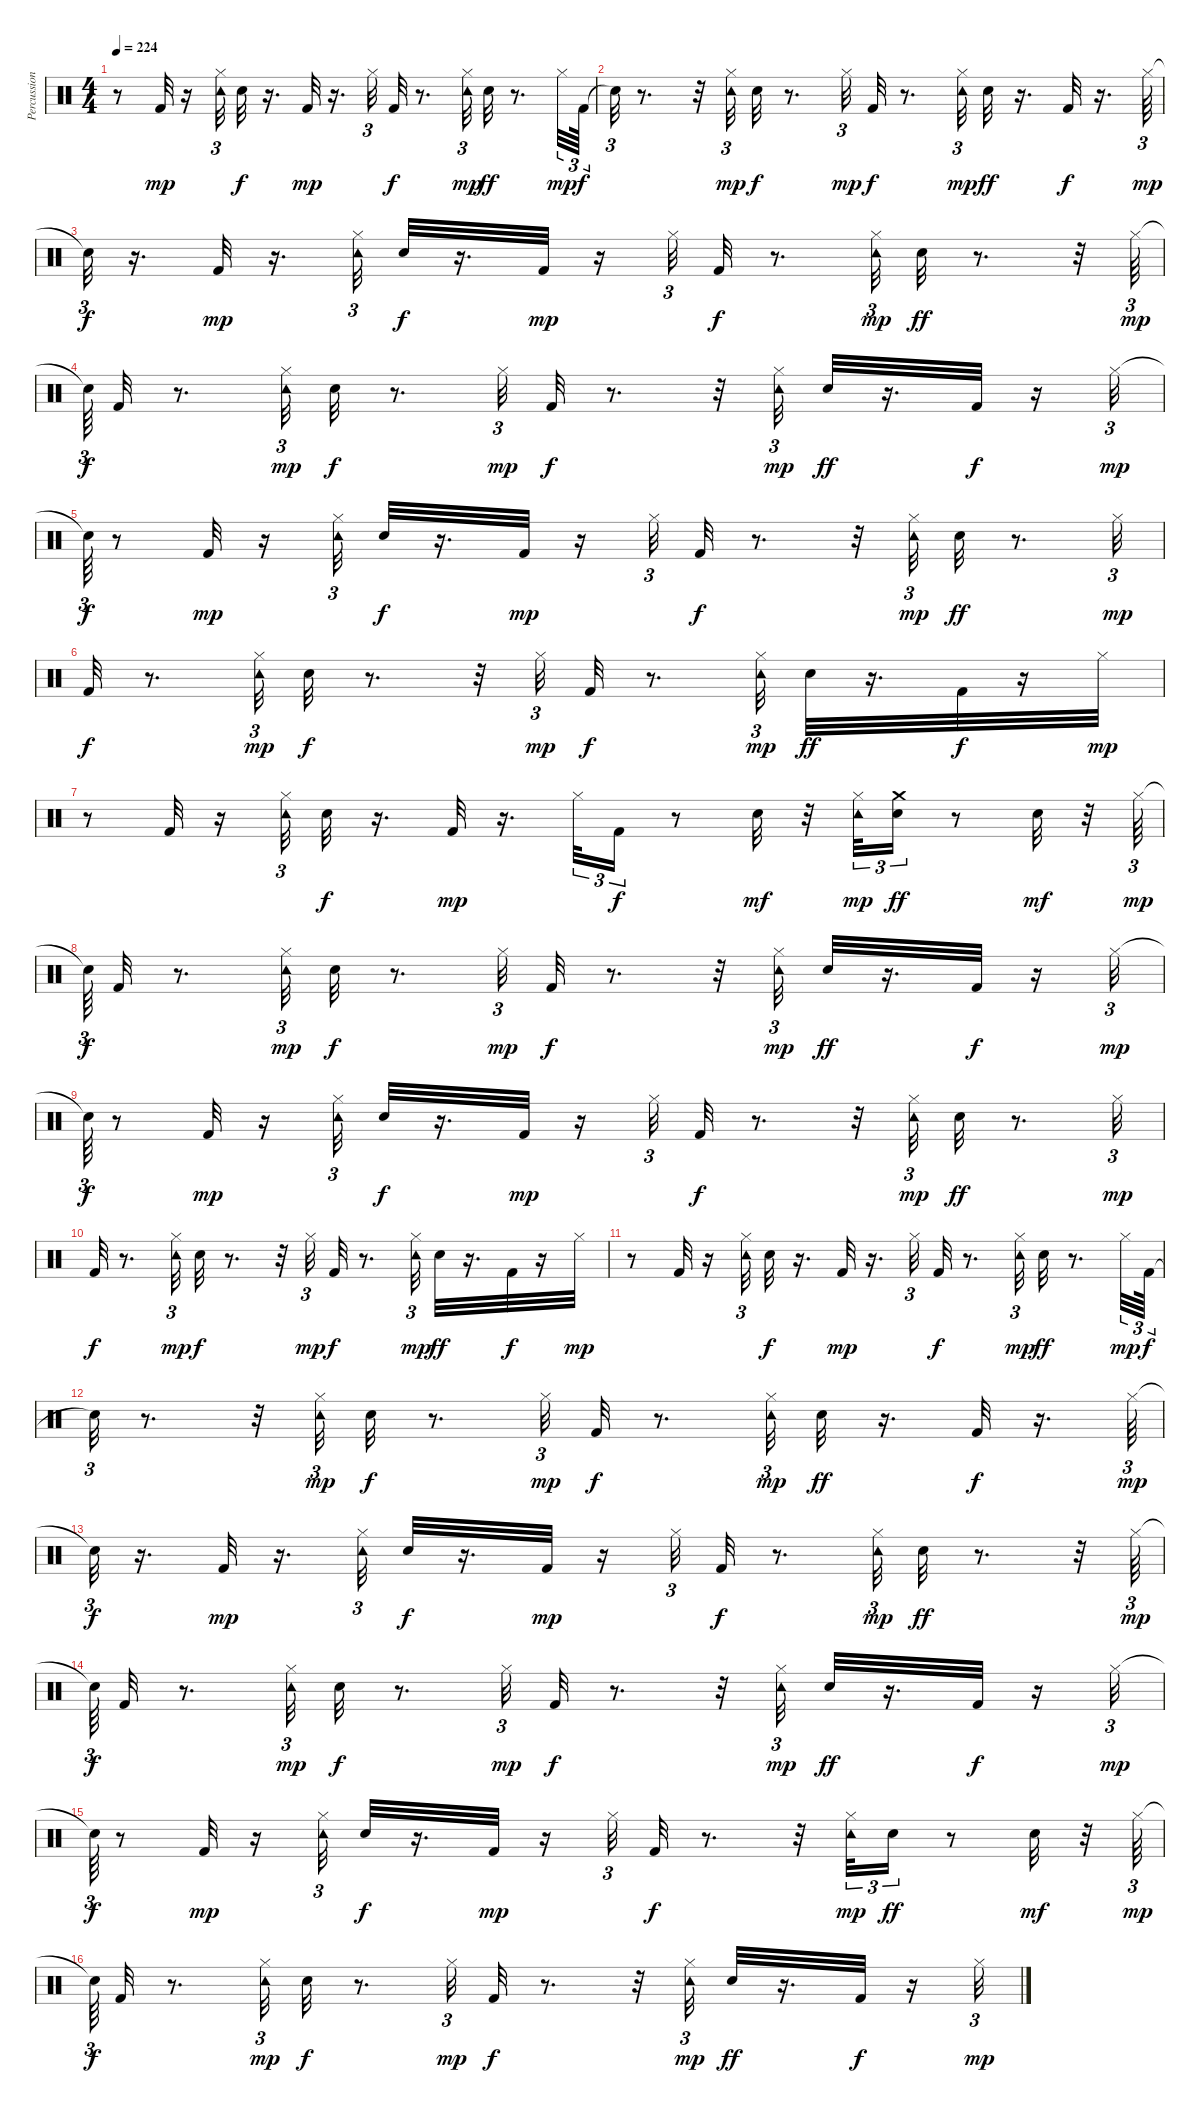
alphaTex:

\track ("Percussion" "Percussion") {instrument percussion}
\staff {score}
\articulation defaults
\ts (4 4)
\tempo 224
\clef neutral
\ks c
r.8{dy mp} "Kick (hit) 2".32 r.16 ("Tambourine (hit)" "Hi-Hat (closed)").32{tu (3 2)} "Snare (hit) 2".32{dy f} r.16{d} "Kick (hit) 2".32{dy mp} r.16{d} "Hi-Hat (closed)".32{tu (3 2)} "Kick (hit) 2".32{dy f} r.8{d} ("Tambourine (hit)" "Hi-Hat (closed)").32{tu (3 2) dy mp} "Snare (hit) 2".32{dy ff} r.8{d} "Hi-Hat (closed)".32{tu (3 2) dy mp} "Kick (hit) 2".64{tu (3 2) dy f} |
"Snare (hit)"{t}.32{tu (3 2)} r.8{d} r.32 ("Tambourine (hit)" "Hi-Hat (closed)").32{tu (3 2) dy mp} "Snare (hit) 2".32{dy f} r.8{d} "Hi-Hat (closed)".32{tu (3 2) dy mp} "Kick (hit) 2".32{dy f} r.8{d} ("Tambourine (hit)" "Hi-Hat (closed)").32{tu (3 2) dy mp} "Snare (hit) 2".32{dy ff} r.16{d} "Kick (hit) 2".32{dy f} r.16{d} "Hi-Hat (closed)".64{tu (3 2) dy mp} |
"Snare (hit)"{t}.32{tu (3 2) dy f} r.16{d} "Kick (hit) 2".32{dy mp} r.16{d} ("Tambourine (hit)" "Hi-Hat (closed)").32{tu (3 2)} "Snare (hit) 2".32{dy f} r.16{d} "Kick (hit) 2".32{dy mp} r.16 "Hi-Hat (closed)".32{tu (3 2)} "Kick (hit) 2".32{dy f} r.8{d} ("Tambourine (hit)" "Hi-Hat (closed)").32{tu (3 2) dy mp} "Snare (hit) 2".32{dy ff} r.8{d} r.32 "Hi-Hat (closed)".64{tu (3 2) dy mp} |
"Snare (hit)"{t}.64{tu (3 2) dy f} "Kick (hit) 2".32 r.8{d} ("Tambourine (hit)" "Hi-Hat (closed)").32{tu (3 2) dy mp} "Snare (hit) 2".32{dy f} r.8{d} "Hi-Hat (closed)".32{tu (3 2) dy mp} "Kick (hit) 2".32{dy f} r.8{d} r.32 ("Tambourine (hit)" "Hi-Hat (closed)").32{tu (3 2) dy mp} "Snare (hit) 2".32{dy ff} r.16{d} "Kick (hit) 2".32{dy f} r.16 "Hi-Hat (closed)".32{tu (3 2) dy mp} |
"Snare (hit)"{t}.64{tu (3 2) dy f} r.8 "Kick (hit) 2".32{dy mp} r.16 ("Tambourine (hit)" "Hi-Hat (closed)").32{tu (3 2)} "Snare (hit) 2".32{dy f} r.16{d} "Kick (hit) 2".32{dy mp} r.16 "Hi-Hat (closed)".32{tu (3 2)} "Kick (hit) 2".32{dy f} r.8{d} r.32 ("Tambourine (hit)" "Hi-Hat (closed)").32{tu (3 2) dy mp} "Snare (hit) 2".32{dy ff} r.8{d} "Hi-Hat (closed)".32{tu (3 2) dy mp} |
"Kick (hit) 2".32{dy f} r.8{d} ("Tambourine (hit)" "Hi-Hat (closed)").32{tu (3 2) dy mp} "Snare (hit) 2".32{dy f} r.8{d} r.32 "Hi-Hat (closed)".32{tu (3 2) dy mp} "Kick (hit) 2".32{dy f} r.8{d} ("Tambourine (hit)" "Hi-Hat (closed)").32{tu (3 2) dy mp} "Snare (hit) 2".32{dy ff} r.16{d} "Kick (hit) 2".32{dy f} r.16 "Hi-Hat (closed)".32{dy mp} |
r.8 "Kick (hit) 2".32 r.16 ("Tambourine (hit)" "Hi-Hat (closed)").32{tu (3 2)} "Snare (hit) 2".32{dy f} r.16{d} "Kick (hit) 2".32{dy mp} r.16{d} "Hi-Hat (closed)".32{tu (3 2)} "Kick (hit) 2".16{tu (3 2) dy f} r.8 "Snare (hit) 2".32{dy mf} r.32 ("Tambourine (hit)" "Hi-Hat (closed)").32{tu (3 2) dy mp} ("Snare (hit) 2" "Crash medium (hit)").16{tu (3 2) dy ff} r.8 "Snare (hit) 2".32{dy mf} r.32 "Hi-Hat (closed)".64{tu (3 2) dy mp} |
"Snare (hit)"{t}.64{tu (3 2) dy f} "Kick (hit) 2".32 r.8{d} ("Tambourine (hit)" "Hi-Hat (closed)").32{tu (3 2) dy mp} "Snare (hit) 2".32{dy f} r.8{d} "Hi-Hat (closed)".32{tu (3 2) dy mp} "Kick (hit) 2".32{dy f} r.8{d} r.32 ("Tambourine (hit)" "Hi-Hat (closed)").32{tu (3 2) dy mp} "Snare (hit) 2".32{dy ff} r.16{d} "Kick (hit) 2".32{dy f} r.16 "Hi-Hat (closed)".32{tu (3 2) dy mp} |
"Snare (hit)"{t}.64{tu (3 2) dy f} r.8 "Kick (hit) 2".32{dy mp} r.16 ("Tambourine (hit)" "Hi-Hat (closed)").32{tu (3 2)} "Snare (hit) 2".32{dy f} r.16{d} "Kick (hit) 2".32{dy mp} r.16 "Hi-Hat (closed)".32{tu (3 2)} "Kick (hit) 2".32{dy f} r.8{d} r.32 ("Tambourine (hit)" "Hi-Hat (closed)").32{tu (3 2) dy mp} "Snare (hit) 2".32{dy ff} r.8{d} "Hi-Hat (closed)".32{tu (3 2) dy mp} |
"Kick (hit) 2".32{dy f} r.8{d} ("Tambourine (hit)" "Hi-Hat (closed)").32{tu (3 2) dy mp} "Snare (hit) 2".32{dy f} r.8{d} r.32 "Hi-Hat (closed)".32{tu (3 2) dy mp} "Kick (hit) 2".32{dy f} r.8{d} ("Tambourine (hit)" "Hi-Hat (closed)").32{tu (3 2) dy mp} "Snare (hit) 2".32{dy ff} r.16{d} "Kick (hit) 2".32{dy f} r.16 "Hi-Hat (closed)".32{dy mp} |
r.8 "Kick (hit) 2".32 r.16 ("Tambourine (hit)" "Hi-Hat (closed)").32{tu (3 2)} "Snare (hit) 2".32{dy f} r.16{d} "Kick (hit) 2".32{dy mp} r.16{d} "Hi-Hat (closed)".32{tu (3 2)} "Kick (hit) 2".32{dy f} r.8{d} ("Tambourine (hit)" "Hi-Hat (closed)").32{tu (3 2) dy mp} "Snare (hit) 2".32{dy ff} r.8{d} "Hi-Hat (closed)".32{tu (3 2) dy mp} "Kick (hit) 2".64{tu (3 2) dy f} |
"Snare (hit)"{t}.32{tu (3 2)} r.8{d} r.32 ("Tambourine (hit)" "Hi-Hat (closed)").32{tu (3 2) dy mp} "Snare (hit) 2".32{dy f} r.8{d} "Hi-Hat (closed)".32{tu (3 2) dy mp} "Kick (hit) 2".32{dy f} r.8{d} ("Tambourine (hit)" "Hi-Hat (closed)").32{tu (3 2) dy mp} "Snare (hit) 2".32{dy ff} r.16{d} "Kick (hit) 2".32{dy f} r.16{d} "Hi-Hat (closed)".64{tu (3 2) dy mp} |
"Snare (hit)"{t}.32{tu (3 2) dy f} r.16{d} "Kick (hit) 2".32{dy mp} r.16{d} ("Tambourine (hit)" "Hi-Hat (closed)").32{tu (3 2)} "Snare (hit) 2".32{dy f} r.16{d} "Kick (hit) 2".32{dy mp} r.16 "Hi-Hat (closed)".32{tu (3 2)} "Kick (hit) 2".32{dy f} r.8{d} ("Tambourine (hit)" "Hi-Hat (closed)").32{tu (3 2) dy mp} "Snare (hit) 2".32{dy ff} r.8{d} r.32 "Hi-Hat (closed)".64{tu (3 2) dy mp} |
"Snare (hit)"{t}.64{tu (3 2) dy f} "Kick (hit) 2".32 r.8{d} ("Tambourine (hit)" "Hi-Hat (closed)").32{tu (3 2) dy mp} "Snare (hit) 2".32{dy f} r.8{d} "Hi-Hat (closed)".32{tu (3 2) dy mp} "Kick (hit) 2".32{dy f} r.8{d} r.32 ("Tambourine (hit)" "Hi-Hat (closed)").32{tu (3 2) dy mp} "Snare (hit) 2".32{dy ff} r.16{d} "Kick (hit) 2".32{dy f} r.16 "Hi-Hat (closed)".32{tu (3 2) dy mp} |
"Snare (hit)"{t}.64{tu (3 2) dy f} r.8 "Kick (hit) 2".32{dy mp} r.16 ("Tambourine (hit)" "Hi-Hat (closed)").32{tu (3 2)} "Snare (hit) 2".32{dy f} r.16{d} "Kick (hit) 2".32{dy mp} r.16 "Hi-Hat (closed)".32{tu (3 2)} "Kick (hit) 2".32{dy f} r.8{d} r.32 ("Tambourine (hit)" "Hi-Hat (closed)").32{tu (3 2) dy mp} "Snare (hit) 2".16{tu (3 2) dy ff} r.8 "Snare (hit) 2".32{dy mf} r.32 "Hi-Hat (closed)".64{tu (3 2) dy mp} |
"Snare (hit)"{t}.64{tu (3 2) dy f} "Kick (hit) 2".32 r.8{d} ("Tambourine (hit)" "Hi-Hat (closed)").32{tu (3 2) dy mp} "Snare (hit) 2".32{dy f} r.8{d} "Hi-Hat (closed)".32{tu (3 2) dy mp} "Kick (hit) 2".32{dy f} r.8{d} r.32 ("Tambourine (hit)" "Hi-Hat (closed)").32{tu (3 2) dy mp} "Snare (hit) 2".32{dy ff} r.16{d} "Kick (hit) 2".32{dy f} r.16 "Hi-Hat (closed)".32{tu (3 2) dy mp}
